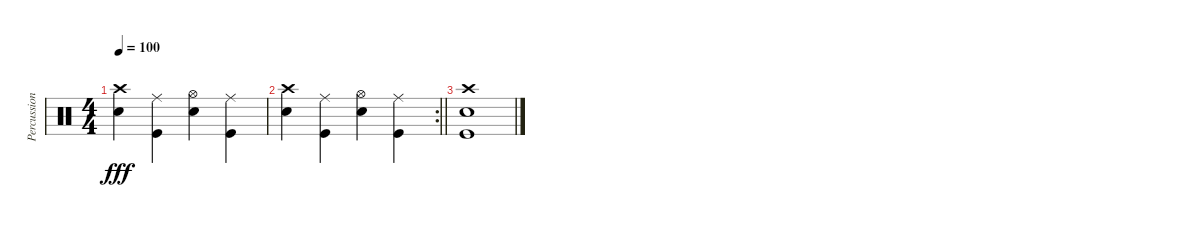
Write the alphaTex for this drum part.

\track ("Percussion" "Percussion") {solo instrument percussion}
\staff {score}
\articulation defaults
\ts (4 4)
\tempo 100
\clef neutral
\ks c
("Snare (hit) 2" "Crash high (hit)").4{dy fff} ("Ride (middle)" "Kick (hit)").4 ("Snare (hit) 2" "Hi-Hat (open)").4 ("Ride (middle)" "Kick (hit)").4 |
\rc 2
\barLineRight lightlight
("Snare (hit) 2" "Crash high (hit)").4 ("Ride (middle)" "Kick (hit)").4 ("Snare (hit) 2" "Hi-Hat (open)").4 ("Ride (middle)" "Kick (hit)").4 |
("Kick (hit)" "Snare (hit) 2" "Crash high (hit)").1
